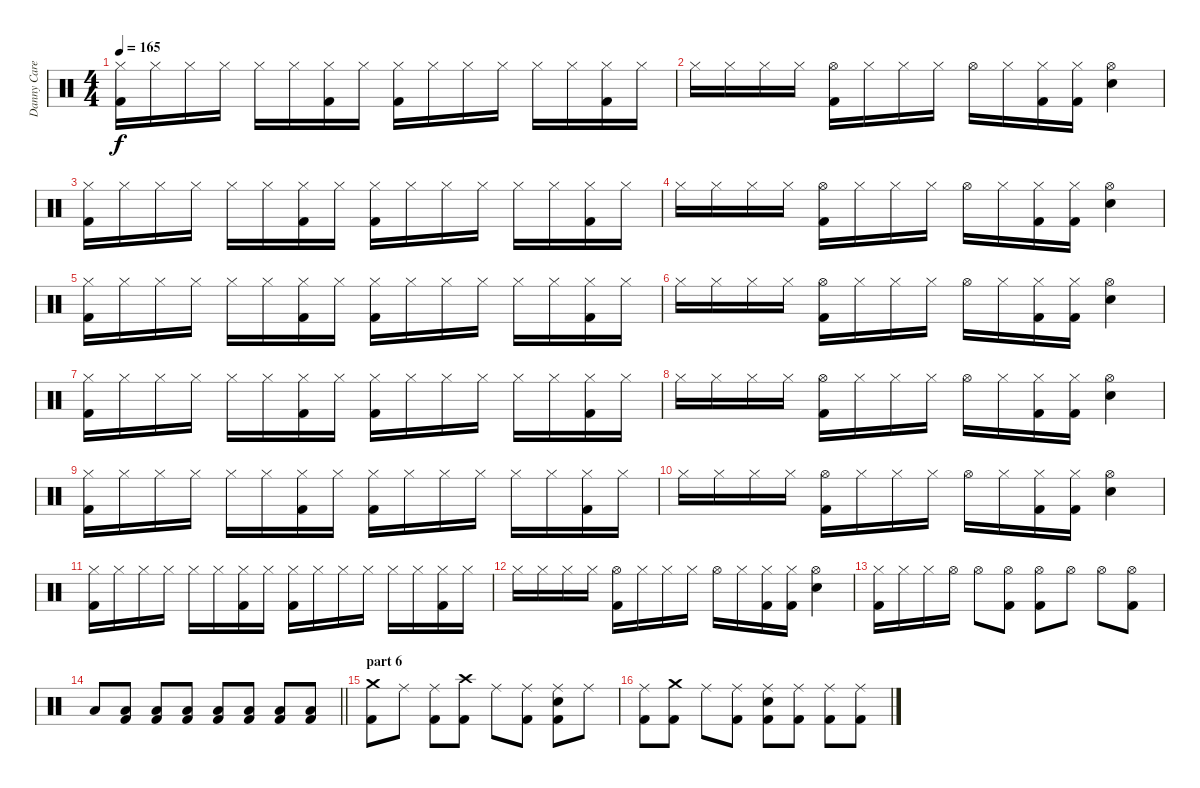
\track ("Danny Carey / drums" "Danny Care") {instrument percussion}
\staff {score}
\articulation defaults
\ts (4 4)
\tempo 165
\clef neutral
\ks c
("Hi-Hat (closed)" "Kick (hit) 2").16{dy f} "Hi-Hat (closed)".16 "Hi-Hat (closed)".16 "Hi-Hat (closed)".16 "Hi-Hat (closed)".16 "Hi-Hat (closed)".16 ("Hi-Hat (closed)" "Kick (hit) 2").16 "Hi-Hat (closed)".16 ("Hi-Hat (closed)" "Kick (hit) 2").16 "Hi-Hat (closed)".16 "Hi-Hat (closed)".16 "Hi-Hat (closed)".16 "Hi-Hat (closed)".16 "Hi-Hat (closed)".16 ("Hi-Hat (closed)" "Kick (hit) 2").16 "Hi-Hat (closed)".16 |
"Hi-Hat (closed)".16 "Hi-Hat (closed)".16 "Hi-Hat (closed)".16 "Hi-Hat (closed)".16 ("Hi-Hat (open)" "Kick (hit) 2").16 "Hi-Hat (closed)".16 "Hi-Hat (closed)".16 "Hi-Hat (closed)".16 "Hi-Hat (open)".16 "Hi-Hat (closed)".16 ("Hi-Hat (closed)" "Kick (hit) 2").16 ("Hi-Hat (closed)" "Kick (hit) 2").16 ("Hi-Hat (open)" "Electric Snare (hit)").4 |
("Hi-Hat (closed)" "Kick (hit) 2").16 "Hi-Hat (closed)".16 "Hi-Hat (closed)".16 "Hi-Hat (closed)".16 "Hi-Hat (closed)".16 "Hi-Hat (closed)".16 ("Hi-Hat (closed)" "Kick (hit) 2").16 "Hi-Hat (closed)".16 ("Hi-Hat (closed)" "Kick (hit) 2").16 "Hi-Hat (closed)".16 "Hi-Hat (closed)".16 "Hi-Hat (closed)".16 "Hi-Hat (closed)".16 "Hi-Hat (closed)".16 ("Hi-Hat (closed)" "Kick (hit) 2").16 "Hi-Hat (closed)".16 |
"Hi-Hat (closed)".16 "Hi-Hat (closed)".16 "Hi-Hat (closed)".16 "Hi-Hat (closed)".16 ("Hi-Hat (open)" "Kick (hit) 2").16 "Hi-Hat (closed)".16 "Hi-Hat (closed)".16 "Hi-Hat (closed)".16 "Hi-Hat (open)".16 "Hi-Hat (closed)".16 ("Hi-Hat (closed)" "Kick (hit) 2").16 ("Hi-Hat (closed)" "Kick (hit) 2").16 ("Hi-Hat (open)" "Electric Snare (hit)").4 |
("Hi-Hat (closed)" "Kick (hit) 2").16 "Hi-Hat (closed)".16 "Hi-Hat (closed)".16 "Hi-Hat (closed)".16 "Hi-Hat (closed)".16 "Hi-Hat (closed)".16 ("Hi-Hat (closed)" "Kick (hit) 2").16 "Hi-Hat (closed)".16 ("Hi-Hat (closed)" "Kick (hit) 2").16 "Hi-Hat (closed)".16 "Hi-Hat (closed)".16 "Hi-Hat (closed)".16 "Hi-Hat (closed)".16 "Hi-Hat (closed)".16 ("Hi-Hat (closed)" "Kick (hit) 2").16 "Hi-Hat (closed)".16 |
"Hi-Hat (closed)".16 "Hi-Hat (closed)".16 "Hi-Hat (closed)".16 "Hi-Hat (closed)".16 ("Hi-Hat (open)" "Kick (hit) 2").16 "Hi-Hat (closed)".16 "Hi-Hat (closed)".16 "Hi-Hat (closed)".16 "Hi-Hat (open)".16 "Hi-Hat (closed)".16 ("Hi-Hat (closed)" "Kick (hit) 2").16 ("Hi-Hat (closed)" "Kick (hit) 2").16 ("Hi-Hat (open)" "Electric Snare (hit)").4 |
("Hi-Hat (closed)" "Kick (hit) 2").16 "Hi-Hat (closed)".16 "Hi-Hat (closed)".16 "Hi-Hat (closed)".16 "Hi-Hat (closed)".16 "Hi-Hat (closed)".16 ("Hi-Hat (closed)" "Kick (hit) 2").16 "Hi-Hat (closed)".16 ("Hi-Hat (closed)" "Kick (hit) 2").16 "Hi-Hat (closed)".16 "Hi-Hat (closed)".16 "Hi-Hat (closed)".16 "Hi-Hat (closed)".16 "Hi-Hat (closed)".16 ("Hi-Hat (closed)" "Kick (hit) 2").16 "Hi-Hat (closed)".16 |
"Hi-Hat (closed)".16 "Hi-Hat (closed)".16 "Hi-Hat (closed)".16 "Hi-Hat (closed)".16 ("Hi-Hat (open)" "Kick (hit) 2").16 "Hi-Hat (closed)".16 "Hi-Hat (closed)".16 "Hi-Hat (closed)".16 "Hi-Hat (open)".16 "Hi-Hat (closed)".16 ("Hi-Hat (closed)" "Kick (hit) 2").16 ("Hi-Hat (closed)" "Kick (hit) 2").16 ("Hi-Hat (open)" "Electric Snare (hit)").4 |
("Hi-Hat (closed)" "Kick (hit) 2").16 "Hi-Hat (closed)".16 "Hi-Hat (closed)".16 "Hi-Hat (closed)".16 "Hi-Hat (closed)".16 "Hi-Hat (closed)".16 ("Hi-Hat (closed)" "Kick (hit) 2").16 "Hi-Hat (closed)".16 ("Hi-Hat (closed)" "Kick (hit) 2").16 "Hi-Hat (closed)".16 "Hi-Hat (closed)".16 "Hi-Hat (closed)".16 "Hi-Hat (closed)".16 "Hi-Hat (closed)".16 ("Hi-Hat (closed)" "Kick (hit) 2").16 "Hi-Hat (closed)".16 |
"Hi-Hat (closed)".16 "Hi-Hat (closed)".16 "Hi-Hat (closed)".16 "Hi-Hat (closed)".16 ("Hi-Hat (open)" "Kick (hit) 2").16 "Hi-Hat (closed)".16 "Hi-Hat (closed)".16 "Hi-Hat (closed)".16 "Hi-Hat (open)".16 "Hi-Hat (closed)".16 ("Hi-Hat (closed)" "Kick (hit) 2").16 ("Hi-Hat (closed)" "Kick (hit) 2").16 ("Hi-Hat (open)" "Electric Snare (hit)").4 |
("Hi-Hat (closed)" "Kick (hit) 2").16 "Hi-Hat (closed)".16 "Hi-Hat (closed)".16 "Hi-Hat (closed)".16 "Hi-Hat (closed)".16 "Hi-Hat (closed)".16 ("Hi-Hat (closed)" "Kick (hit) 2").16 "Hi-Hat (closed)".16 ("Hi-Hat (closed)" "Kick (hit) 2").16 "Hi-Hat (closed)".16 "Hi-Hat (closed)".16 "Hi-Hat (closed)".16 "Hi-Hat (closed)".16 "Hi-Hat (closed)".16 ("Hi-Hat (closed)" "Kick (hit) 2").16 "Hi-Hat (closed)".16 |
"Hi-Hat (closed)".16 "Hi-Hat (closed)".16 "Hi-Hat (closed)".16 "Hi-Hat (closed)".16 ("Hi-Hat (open)" "Kick (hit) 2").16 "Hi-Hat (closed)".16 "Hi-Hat (closed)".16 "Hi-Hat (closed)".16 "Hi-Hat (open)".16 "Hi-Hat (closed)".16 ("Hi-Hat (closed)" "Kick (hit) 2").16 ("Hi-Hat (closed)" "Kick (hit) 2").16 ("Hi-Hat (open)" "Electric Snare (hit)").4 |
("Hi-Hat (closed)" "Kick (hit) 2").16 "Hi-Hat (closed)".16 "Hi-Hat (closed)".16 "Hi-Hat (open)".16 "Hi-Hat (open)".8 ("Hi-Hat (open)" "Kick (hit) 2").8 ("Hi-Hat (open)" "Kick (hit) 2").8 "Hi-Hat (open)".8 "Hi-Hat (open)".8 ("Hi-Hat (open)" "Kick (hit) 2").8 |
\barLineRight lightlight "Low Floor Tom (hit)".8
("Low Floor Tom (hit)" "Kick (hit) 2").8 ("Low Floor Tom (hit)" "Kick (hit) 2").8 ("Low Floor Tom (hit)" "Kick (hit) 2").8 ("Low Floor Tom (hit)" "Kick (hit) 2").8 ("Low Floor Tom (hit)" "Kick (hit) 2").8 ("Low Floor Tom (hit)" "Kick (hit) 2").8 ("Low Floor Tom (hit)" "Kick (hit) 2").8 |
\section ("" "part 6")
("Crash medium (hit)" "Kick (hit) 2").8 "Ride (middle)".8 ("Ride (middle)" "Kick (hit) 2").8 ("Crash high (hit)" "Kick (hit) 2").8 "Ride (middle)".8 ("Ride (middle)" "Kick (hit) 2").8 ("Ride (middle)" "Electric Snare (hit)" "Kick (hit) 2").8 "Ride (middle)".8 |
("Ride (middle)" "Kick (hit) 2").8 ("Crash medium (hit)" "Kick (hit) 2").8 "Ride (middle)".8 ("Ride (middle)" "Kick (hit) 2").8 ("Ride (middle)" "Electric Snare (hit)" "Kick (hit) 2").8 ("Ride (middle)" "Kick (hit) 2").8 ("Ride (middle)" "Kick (hit) 2").8 ("Ride (middle)" "Kick (hit) 2").8
